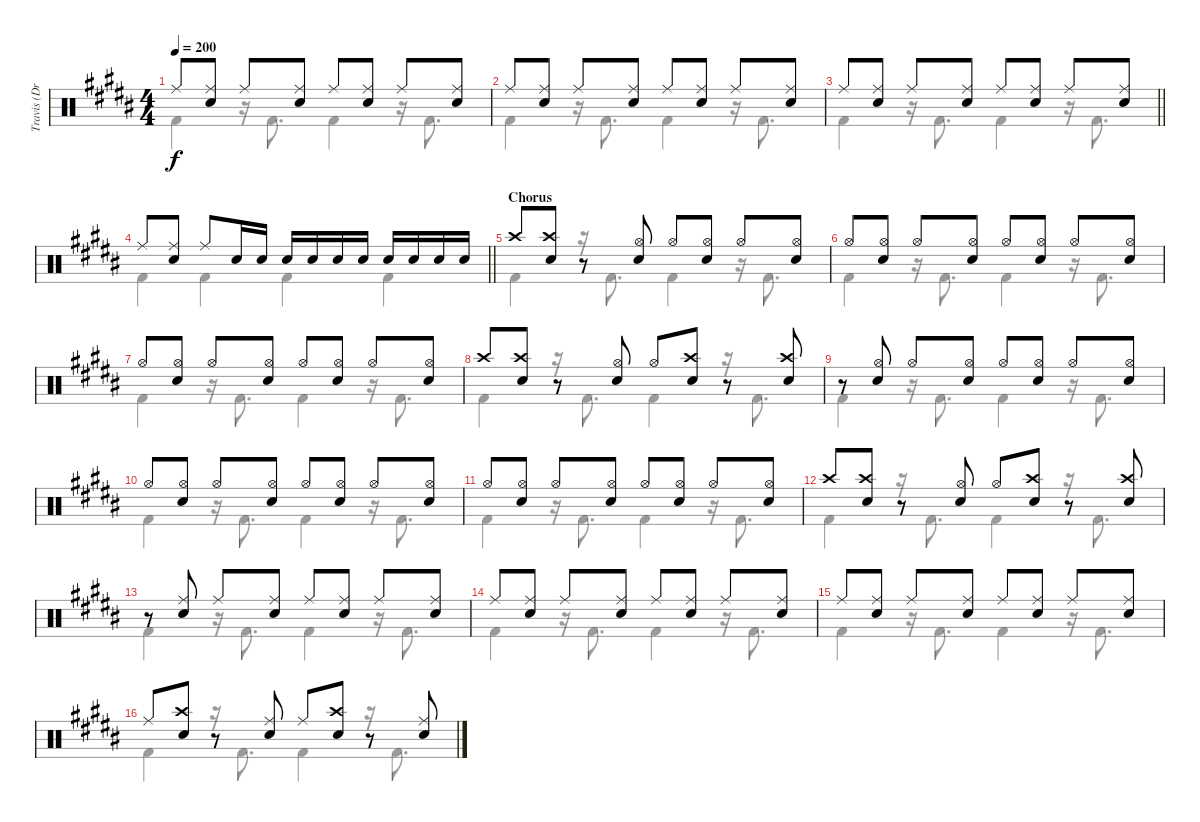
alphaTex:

\track ("Travis (Drums)" "Travis (Dr") {instrument percussion}
\staff {score}
\articulation defaults
\voice
\ts (4 4)
\tempo 200
\clef neutral
\ks b "Ride (middle)".8{dy f}
("Ride (middle)" "Electric Snare (hit)").8 "Ride (middle)".8 ("Ride (middle)" "Electric Snare (hit)").8 "Ride (middle)".8 ("Ride (middle)" "Electric Snare (hit)").8 "Ride (middle)".8 ("Ride (middle)" "Electric Snare (hit)").8 |
"Ride (middle)".8 ("Ride (middle)" "Electric Snare (hit)").8 "Ride (middle)".8 ("Ride (middle)" "Electric Snare (hit)").8 "Ride (middle)".8 ("Ride (middle)" "Electric Snare (hit)").8 "Ride (middle)".8 ("Ride (middle)" "Electric Snare (hit)").8 |
\barLineRight lightlight "Ride (middle)".8
("Ride (middle)" "Electric Snare (hit)").8 "Ride (middle)".8 ("Ride (middle)" "Electric Snare (hit)").8 "Ride (middle)".8 ("Ride (middle)" "Electric Snare (hit)").8 "Ride (middle)".8 ("Ride (middle)" "Electric Snare (hit)").8 |
\barLineRight lightlight "Ride (middle)".8
("Ride (middle)" "Electric Snare (hit)").8 "Ride (middle)".8 "Electric Snare (hit)".16 "Electric Snare (hit)".16 "Electric Snare (hit)".16 "Electric Snare (hit)".16 "Electric Snare (hit)".16 "Electric Snare (hit)".16 "Electric Snare (hit)".16 "Electric Snare (hit)".16 "Electric Snare (hit)".16 "Electric Snare (hit)".16 |
\section ("" "Chorus")
"Crash high (hit)".8 ("Crash high (hit)" "Electric Snare (hit)").8 r.8 ("Electric Snare (hit)" "Hi-Hat (open)").8 "Hi-Hat (open)".8 ("Electric Snare (hit)" "Hi-Hat (open)").8 "Hi-Hat (open)".8 ("Electric Snare (hit)" "Hi-Hat (open)").8 |
"Hi-Hat (open)".8 ("Electric Snare (hit)" "Hi-Hat (open)").8 "Hi-Hat (open)".8 ("Electric Snare (hit)" "Hi-Hat (open)").8 "Hi-Hat (open)".8 ("Electric Snare (hit)" "Hi-Hat (open)").8 "Hi-Hat (open)".8 ("Electric Snare (hit)" "Hi-Hat (open)").8 |
"Hi-Hat (open)".8 ("Electric Snare (hit)" "Hi-Hat (open)").8 "Hi-Hat (open)".8 ("Electric Snare (hit)" "Hi-Hat (open)").8 "Hi-Hat (open)".8 ("Electric Snare (hit)" "Hi-Hat (open)").8 "Hi-Hat (open)".8 ("Electric Snare (hit)" "Hi-Hat (open)").8 |
"Crash high (hit)".8 ("Crash high (hit)" "Electric Snare (hit)").8 r.8 ("Electric Snare (hit)" "Hi-Hat (open)").8 "Hi-Hat (open)".8 ("Crash high (hit)" "Electric Snare (hit)").8 r.8 ("Crash high (hit)" "Electric Snare (hit)").8 |
r.8 ("Electric Snare (hit)" "Hi-Hat (open)").8 "Hi-Hat (open)".8 ("Electric Snare (hit)" "Hi-Hat (open)").8 "Hi-Hat (open)".8 ("Electric Snare (hit)" "Hi-Hat (open)").8 "Hi-Hat (open)".8 ("Electric Snare (hit)" "Hi-Hat (open)").8 |
"Hi-Hat (open)".8 ("Electric Snare (hit)" "Hi-Hat (open)").8 "Hi-Hat (open)".8 ("Electric Snare (hit)" "Hi-Hat (open)").8 "Hi-Hat (open)".8 ("Electric Snare (hit)" "Hi-Hat (open)").8 "Hi-Hat (open)".8 ("Electric Snare (hit)" "Hi-Hat (open)").8 |
"Hi-Hat (open)".8 ("Electric Snare (hit)" "Hi-Hat (open)").8 "Hi-Hat (open)".8 ("Electric Snare (hit)" "Hi-Hat (open)").8 "Hi-Hat (open)".8 ("Electric Snare (hit)" "Hi-Hat (open)").8 "Hi-Hat (open)".8 ("Electric Snare (hit)" "Hi-Hat (open)").8 |
"Crash high (hit)".8 ("Crash high (hit)" "Electric Snare (hit)").8 r.8 ("Electric Snare (hit)" "Hi-Hat (open)").8 "Hi-Hat (open)".8 ("Crash high (hit)" "Electric Snare (hit)").8 r.8 ("Crash high (hit)" "Electric Snare (hit)").8 |
r.8 ("Ride (middle)" "Electric Snare (hit)").8 "Ride (middle)".8 ("Ride (middle)" "Electric Snare (hit)").8 "Ride (middle)".8 ("Ride (middle)" "Electric Snare (hit)").8 "Ride (middle)".8 ("Ride (middle)" "Electric Snare (hit)").8 |
"Ride (middle)".8 ("Ride (middle)" "Electric Snare (hit)").8 "Ride (middle)".8 ("Ride (middle)" "Electric Snare (hit)").8 "Ride (middle)".8 ("Ride (middle)" "Electric Snare (hit)").8 "Ride (middle)".8 ("Ride (middle)" "Electric Snare (hit)").8 |
"Ride (middle)".8 ("Ride (middle)" "Electric Snare (hit)").8 "Ride (middle)".8 ("Ride (middle)" "Electric Snare (hit)").8 "Ride (middle)".8 ("Ride (middle)" "Electric Snare (hit)").8 "Ride (middle)".8 ("Ride (middle)" "Electric Snare (hit)").8 |
"Ride (middle)".8 ("Crash high (hit)" "Electric Snare (hit)").8 r.8 ("Ride (middle)" "Electric Snare (hit)").8 "Ride (middle)".8 ("Crash high (hit)" "Electric Snare (hit)").8 r.8 ("Ride (middle)" "Electric Snare (hit)").8
\voice
\clef neutral
\ottava regular
\simile none
\ks b "Kick (hit) 2".4{dy f}
r.16 "Kick (hit) 2".8{d} "Kick (hit) 2".4 r.16 "Kick (hit) 2".8{d} |
"Kick (hit) 2".4 r.16 "Kick (hit) 2".8{d} "Kick (hit) 2".4 r.16 "Kick (hit) 2".8{d} |
\barLineRight lightlight "Kick (hit) 2".4
r.16 "Kick (hit) 2".8{d} "Kick (hit) 2".4 r.16 "Kick (hit) 2".8{d} |
\barLineRight lightlight "Kick (hit) 2".4 "Kick (hit) 2".4 "Kick (hit) 2".4 "Kick (hit) 2".4
|
"Kick (hit) 2".4 r.16 "Kick (hit) 2".8{d} "Kick (hit) 2".4 r.16 "Kick (hit) 2".8{d} |
"Kick (hit) 2".4 r.16 "Kick (hit) 2".8{d} "Kick (hit) 2".4 r.16 "Kick (hit) 2".8{d} |
"Kick (hit) 2".4 r.16 "Kick (hit) 2".8{d} "Kick (hit) 2".4 r.16 "Kick (hit) 2".8{d} |
"Kick (hit) 2".4 r.16 "Kick (hit) 2".8{d} "Kick (hit) 2".4 r.16 "Kick (hit) 2".8{d} |
"Kick (hit) 2".4 r.16 "Kick (hit) 2".8{d} "Kick (hit) 2".4 r.16 "Kick (hit) 2".8{d} |
"Kick (hit) 2".4 r.16 "Kick (hit) 2".8{d} "Kick (hit) 2".4 r.16 "Kick (hit) 2".8{d} |
"Kick (hit) 2".4 r.16 "Kick (hit) 2".8{d} "Kick (hit) 2".4 r.16 "Kick (hit) 2".8{d} |
"Kick (hit) 2".4 r.16 "Kick (hit) 2".8{d} "Kick (hit) 2".4 r.16 "Kick (hit) 2".8{d} |
"Kick (hit) 2".4 r.16 "Kick (hit) 2".8{d} "Kick (hit) 2".4 r.16 "Kick (hit) 2".8{d} |
"Kick (hit) 2".4 r.16 "Kick (hit) 2".8{d} "Kick (hit) 2".4 r.16 "Kick (hit) 2".8{d} |
"Kick (hit) 2".4 r.16 "Kick (hit) 2".8{d} "Kick (hit) 2".4 r.16 "Kick (hit) 2".8{d} |
"Kick (hit) 2".4 r.16 "Kick (hit) 2".8{d} "Kick (hit) 2".4 r.16 "Kick (hit) 2".8{d}
